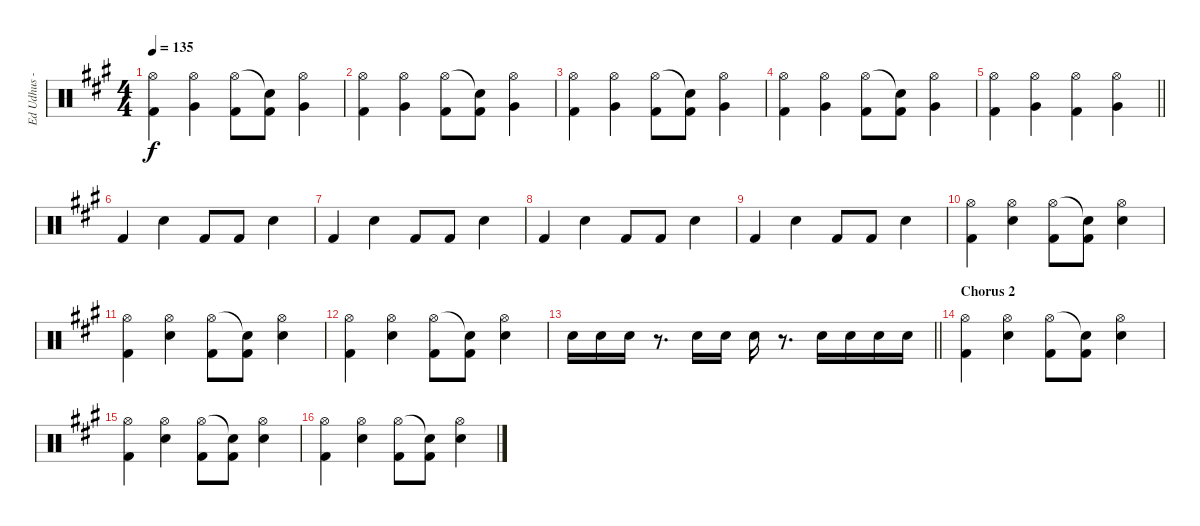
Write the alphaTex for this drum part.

\track ("Ed Udhus - Drums" "Ed Udhus -") {instrument percussion bank 127}
\staff {score}
\articulation defaults
\ts (4 4)
\tempo 135
\clef neutral
\ks a
("Hi-Hat (open)" "Kick (hit) 2").4{dy f} ("Hi-Hat (open)" "Very Low Tom (hit)").4 ("Hi-Hat (open)" "Kick (hit) 2").8 ("Snare (hit)"{t} "Kick (hit) 2").8 ("Hi-Hat (open)" "Very Low Tom (hit)").4 |
("Hi-Hat (open)" "Kick (hit) 2").4 ("Hi-Hat (open)" "Very Low Tom (hit)").4 ("Hi-Hat (open)" "Kick (hit) 2").8 ("Snare (hit)"{t} "Kick (hit) 2").8 ("Hi-Hat (open)" "Very Low Tom (hit)").4 |
("Hi-Hat (open)" "Kick (hit) 2").4 ("Hi-Hat (open)" "Very Low Tom (hit)").4 ("Hi-Hat (open)" "Kick (hit) 2").8 ("Snare (hit)"{t} "Kick (hit) 2").8 ("Hi-Hat (open)" "Very Low Tom (hit)").4 |
("Hi-Hat (open)" "Kick (hit) 2").4 ("Hi-Hat (open)" "Very Low Tom (hit)").4 ("Hi-Hat (open)" "Kick (hit) 2").8 ("Snare (hit)"{t} "Kick (hit) 2").8 ("Hi-Hat (open)" "Very Low Tom (hit)").4 |
\barLineRight lightlight
("Hi-Hat (open)" "Kick (hit) 2").4{volume 16} ("Hi-Hat (open)" "Very Low Tom (hit)").4 ("Hi-Hat (open)" "Kick (hit) 2").4 ("Hi-Hat (open)" "Very Low Tom (hit)").4 |
"Kick (hit) 2".4{volume 11} "Snare (hit) 2".4 "Kick (hit) 2".8 "Kick (hit) 2".8 "Snare (hit) 2".4 |
"Kick (hit) 2".4 "Snare (hit) 2".4 "Kick (hit) 2".8 "Kick (hit) 2".8 "Snare (hit) 2".4 |
"Kick (hit) 2".4 "Snare (hit) 2".4 "Kick (hit) 2".8 "Kick (hit) 2".8 "Snare (hit) 2".4 |
"Kick (hit) 2".4 "Snare (hit) 2".4 "Kick (hit) 2".8 "Kick (hit) 2".8 "Snare (hit) 2".4 |
("Hi-Hat (open)" "Kick (hit) 2").4 ("Hi-Hat (open)" "Snare (hit) 2").4 ("Hi-Hat (open)" "Kick (hit) 2").8 ("Snare (hit)"{t} "Kick (hit) 2").8 ("Hi-Hat (open)" "Snare (hit) 2").4 |
("Hi-Hat (open)" "Kick (hit) 2").4 ("Hi-Hat (open)" "Snare (hit) 2").4 ("Hi-Hat (open)" "Kick (hit) 2").8 ("Snare (hit)"{t} "Kick (hit) 2").8 ("Hi-Hat (open)" "Snare (hit) 2").4 |
("Hi-Hat (open)" "Kick (hit) 2").4 ("Hi-Hat (open)" "Snare (hit) 2").4 ("Hi-Hat (open)" "Kick (hit) 2").8 ("Snare (hit)"{t} "Kick (hit) 2").8 ("Hi-Hat (open)" "Snare (hit) 2").4 |
\barLineRight lightlight "Snare (hit) 2".16 "Snare (hit) 2".16 "Snare (hit) 2".16
r.8{d} "Snare (hit) 2".16 "Snare (hit) 2".16 "Snare (hit) 2".16 r.8{d} "Snare (hit) 2".16 "Snare (hit) 2".16 "Snare (hit) 2".16 "Snare (hit) 2".16 |
\section ("" "Chorus 2")
("Hi-Hat (open)" "Kick (hit) 2").4 ("Hi-Hat (open)" "Snare (hit) 2").4 ("Hi-Hat (open)" "Kick (hit) 2").8 ("Snare (hit)"{t} "Kick (hit) 2").8 ("Hi-Hat (open)" "Snare (hit) 2").4 |
("Hi-Hat (open)" "Kick (hit) 2").4 ("Hi-Hat (open)" "Snare (hit) 2").4 ("Hi-Hat (open)" "Kick (hit) 2").8 ("Snare (hit)"{t} "Kick (hit) 2").8 ("Hi-Hat (open)" "Snare (hit) 2").4 |
("Hi-Hat (open)" "Kick (hit) 2").4 ("Hi-Hat (open)" "Snare (hit) 2").4 ("Hi-Hat (open)" "Kick (hit) 2").8 ("Snare (hit)"{t} "Kick (hit) 2").8 ("Hi-Hat (open)" "Snare (hit) 2").4
